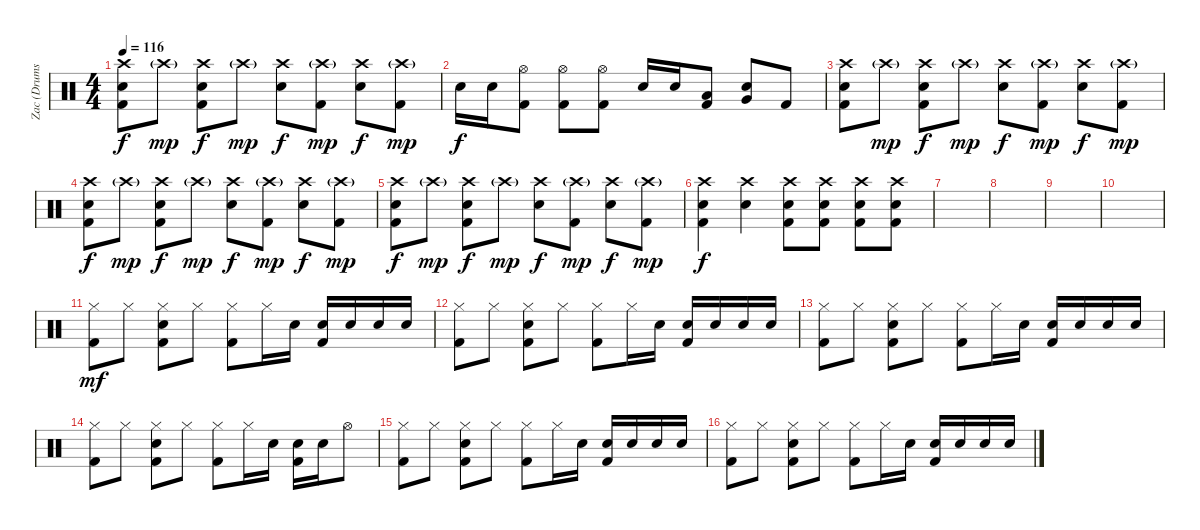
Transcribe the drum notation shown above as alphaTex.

\track ("Zac (Drums)" "Zac (Drums") {instrument percussion}
\staff {score}
\articulation defaults
\ts (4 4)
\tempo 116
\clef neutral
\ks c
("Crash high (hit)" "Electric Snare (hit)" "Kick (hit) 2").8{dy f} "Crash high (hit)"{g}.8{dy mp} ("Crash high (hit)" "Electric Snare (hit)" "Kick (hit) 2").8{dy f} "Crash high (hit)"{g}.8{dy mp} ("Crash high (hit)" "Electric Snare (hit)").8{dy f} ("Crash high (hit)"{g} "Kick (hit) 2").8{dy mp} ("Crash high (hit)" "Electric Snare (hit)").8{dy f} ("Crash high (hit)"{g} "Kick (hit) 2").8{dy mp} |
"Electric Snare (hit)".16{dy f} "Electric Snare (hit)".16 ("Hi-Hat (open)" "Kick (hit) 2").8 ("Hi-Hat (open)" "Kick (hit) 2").8 ("Hi-Hat (open)" "Kick (hit) 2").8 "Electric Snare (hit)".16 "Electric Snare (hit)".16 ("Low Tom (hit)" "Kick (hit) 2").8 ("Electric Snare (hit)" "Very Low Tom (hit)").8 "Kick (hit) 2".8 |
("Crash high (hit)" "Electric Snare (hit)" "Kick (hit) 2").8 "Crash high (hit)"{g}.8{dy mp} ("Crash high (hit)" "Electric Snare (hit)" "Kick (hit) 2").8{dy f} "Crash high (hit)"{g}.8{dy mp} ("Crash high (hit)" "Electric Snare (hit)").8{dy f} ("Crash high (hit)"{g} "Kick (hit) 2").8{dy mp} ("Crash high (hit)" "Electric Snare (hit)").8{dy f} ("Crash high (hit)"{g} "Kick (hit) 2").8{dy mp} |
("Crash high (hit)" "Electric Snare (hit)" "Kick (hit) 2").8{dy f} "Crash high (hit)"{g}.8{dy mp} ("Crash high (hit)" "Electric Snare (hit)" "Kick (hit) 2").8{dy f} "Crash high (hit)"{g}.8{dy mp} ("Crash high (hit)" "Electric Snare (hit)").8{dy f} ("Crash high (hit)"{g} "Kick (hit) 2").8{dy mp} ("Crash high (hit)" "Electric Snare (hit)").8{dy f} ("Crash high (hit)"{g} "Kick (hit) 2").8{dy mp} |
("Crash high (hit)" "Electric Snare (hit)" "Kick (hit) 2").8{dy f} "Crash high (hit)"{g}.8{dy mp} ("Crash high (hit)" "Electric Snare (hit)" "Kick (hit) 2").8{dy f} "Crash high (hit)"{g}.8{dy mp} ("Crash high (hit)" "Electric Snare (hit)").8{dy f} ("Crash high (hit)"{g} "Kick (hit) 2").8{dy mp} ("Crash high (hit)" "Electric Snare (hit)").8{dy f} ("Crash high (hit)"{g} "Kick (hit) 2").8{dy mp} |
("Crash high (hit)" "Electric Snare (hit)" "Kick (hit) 2").4{dy f} ("Crash high (hit)" "Electric Snare (hit)").4 ("Crash high (hit)" "Electric Snare (hit)" "Kick (hit) 2").8 ("Crash high (hit)" "Electric Snare (hit)" "Kick (hit) 2").8 ("Crash high (hit)" "Electric Snare (hit)" "Kick (hit) 2").8 ("Crash high (hit)" "Electric Snare (hit)" "Kick (hit) 2").8 |
|
|
|
|
("Hi-Hat (closed)" "Kick (hit) 2").8{dy mf} "Hi-Hat (closed)".8 ("Hi-Hat (closed)" "Electric Snare (hit)" "Kick (hit) 2").8 "Hi-Hat (closed)".8 ("Hi-Hat (closed)" "Kick (hit) 2").8 "Hi-Hat (closed)".16 "Electric Snare (hit)".16 ("Electric Snare (hit)" "Kick (hit) 2").16 "Electric Snare (hit)".16 "Electric Snare (hit)".16 "Electric Snare (hit)".16 |
("Hi-Hat (closed)" "Kick (hit) 2").8 "Hi-Hat (closed)".8 ("Hi-Hat (closed)" "Electric Snare (hit)" "Kick (hit) 2").8 "Hi-Hat (closed)".8 ("Hi-Hat (closed)" "Kick (hit) 2").8 "Hi-Hat (closed)".16 "Electric Snare (hit)".16 ("Electric Snare (hit)" "Kick (hit) 2").16 "Electric Snare (hit)".16 "Electric Snare (hit)".16 "Electric Snare (hit)".16 |
("Hi-Hat (closed)" "Kick (hit) 2").8 "Hi-Hat (closed)".8 ("Hi-Hat (closed)" "Electric Snare (hit)" "Kick (hit) 2").8 "Hi-Hat (closed)".8 ("Hi-Hat (closed)" "Kick (hit) 2").8 "Hi-Hat (closed)".16 "Electric Snare (hit)".16 ("Electric Snare (hit)" "Kick (hit) 2").16 "Electric Snare (hit)".16 "Electric Snare (hit)".16 "Electric Snare (hit)".16 |
("Hi-Hat (closed)" "Kick (hit) 2").8 "Hi-Hat (closed)".8 ("Hi-Hat (closed)" "Electric Snare (hit)" "Kick (hit) 2").8 "Hi-Hat (closed)".8 ("Hi-Hat (closed)" "Kick (hit) 2").8 "Hi-Hat (closed)".16 "Electric Snare (hit)".16 ("Electric Snare (hit)" "Kick (hit) 2").16 "Electric Snare (hit)".16 "Hi-Hat (open)".8 |
("Hi-Hat (closed)" "Kick (hit) 2").8 "Hi-Hat (closed)".8 ("Hi-Hat (closed)" "Electric Snare (hit)" "Kick (hit) 2").8 "Hi-Hat (closed)".8 ("Hi-Hat (closed)" "Kick (hit) 2").8 "Hi-Hat (closed)".16 "Electric Snare (hit)".16 ("Electric Snare (hit)" "Kick (hit) 2").16 "Electric Snare (hit)".16 "Electric Snare (hit)".16 "Electric Snare (hit)".16 |
("Hi-Hat (closed)" "Kick (hit) 2").8 "Hi-Hat (closed)".8 ("Hi-Hat (closed)" "Electric Snare (hit)" "Kick (hit) 2").8 "Hi-Hat (closed)".8 ("Hi-Hat (closed)" "Kick (hit) 2").8 "Hi-Hat (closed)".16 "Electric Snare (hit)".16 ("Electric Snare (hit)" "Kick (hit) 2").16 "Electric Snare (hit)".16 "Electric Snare (hit)".16 "Electric Snare (hit)".16
